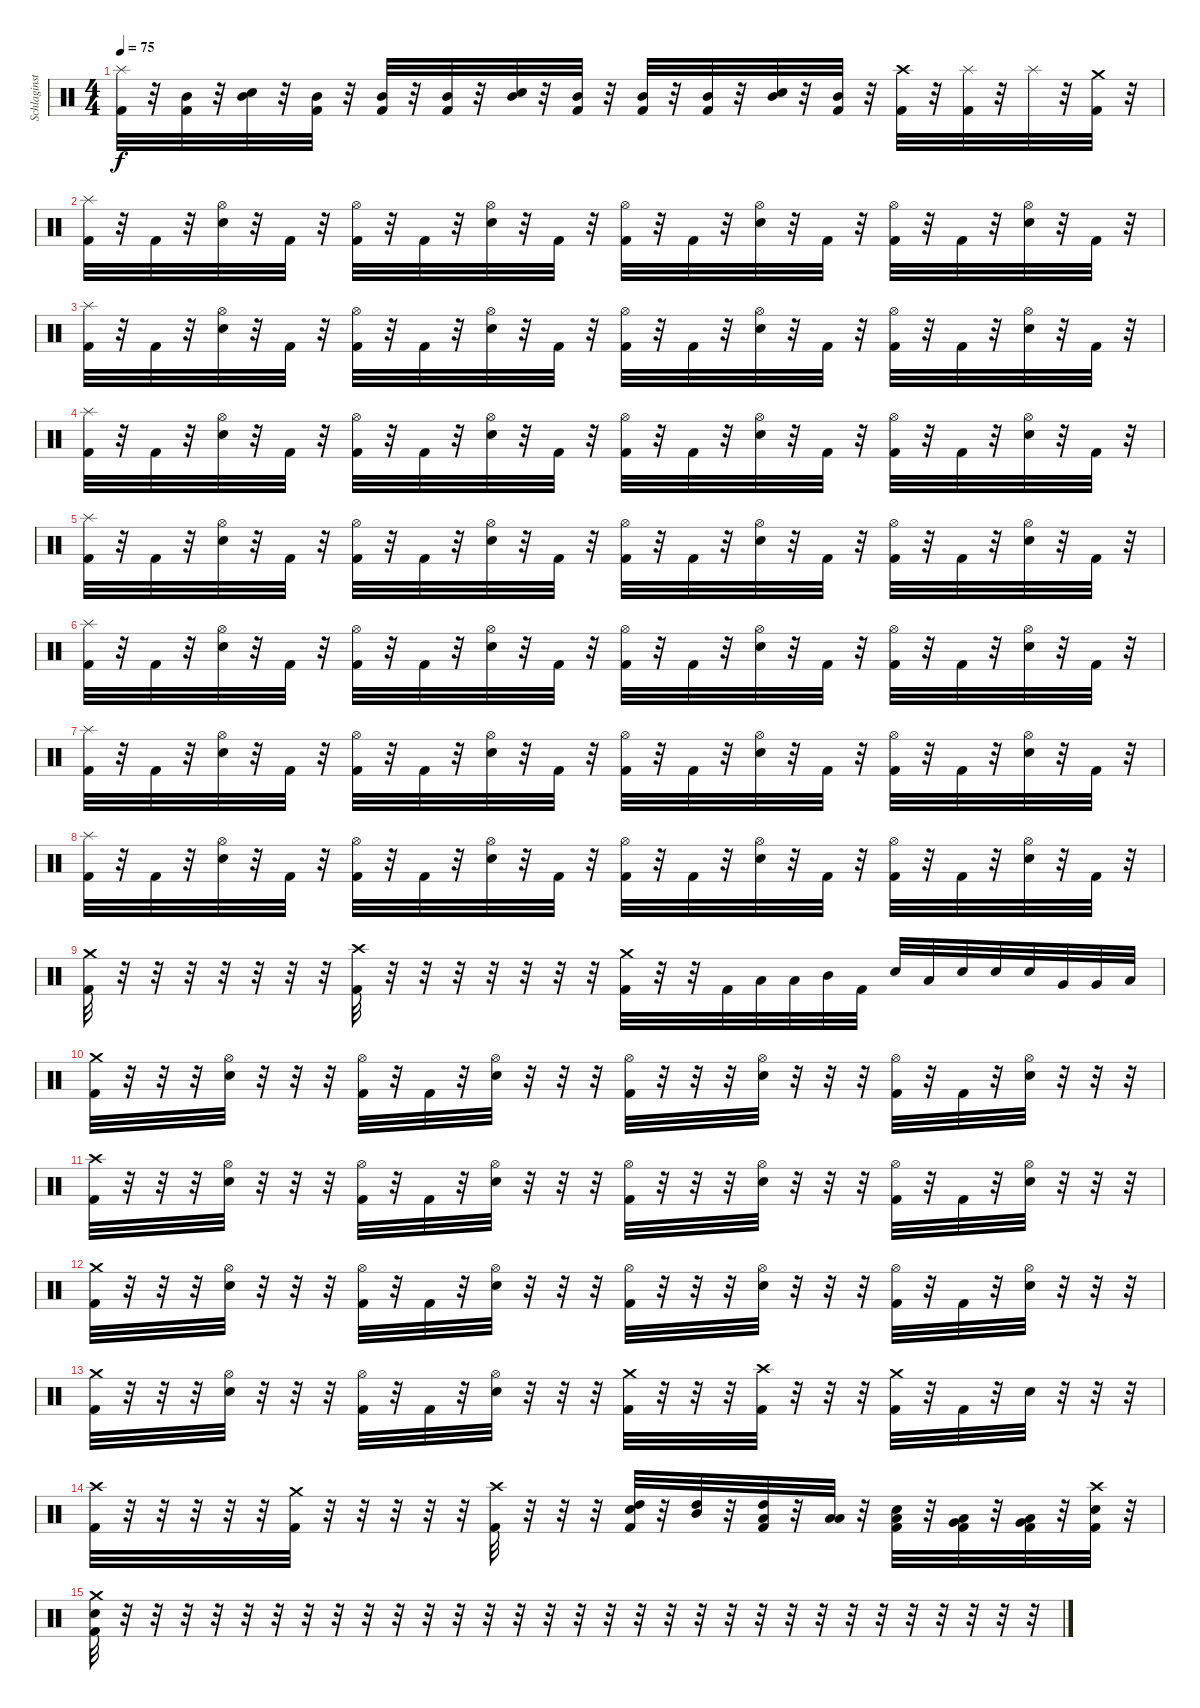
\track ("Schlaginstrumente - Auswahl" "Schlaginst") {instrument percussion}
\staff {score}
\articulation defaults
\ts (4 4)
\tempo 75
\clef neutral
\ks c
("Kick (hit) 2" "Splash (hit)").32{dy f} r.32 ("Kick (hit) 2" "Mid Tom (hit)").32 r.32 ("Electric Snare (hit)" "Mid Tom (hit)").32 r.32 ("Kick (hit) 2" "Mid Tom (hit)").32 r.32 ("Kick (hit) 2" "Mid Tom (hit)").32 r.32 ("Kick (hit) 2" "Mid Tom (hit)").32 r.32 ("Electric Snare (hit)" "Mid Tom (hit)").32 r.32 ("Kick (hit) 2" "Mid Tom (hit)").32 r.32 ("Kick (hit) 2" "Mid Tom (hit)").32 r.32 ("Kick (hit) 2" "Mid Tom (hit)").32 r.32 ("Electric Snare (hit)" "Mid Tom (hit)").32 r.32 ("Kick (hit) 2" "Mid Tom (hit)").32 r.32 ("Kick (hit) 2" "Crash high (hit)").32 r.32 ("Kick (hit) 2" "Splash (hit)").32 r.32 "Splash (hit)".32 r.32 ("Kick (hit) 2" "Crash medium (hit)").32 r.32 |
("Kick (hit) 2" "Splash (hit)").32 r.32 "Kick (hit) 2".32 r.32 ("Electric Snare (hit)" "Hi-Hat (open)").32 r.32 "Kick (hit) 2".32 r.32 ("Kick (hit) 2" "Hi-Hat (open)").32 r.32 "Kick (hit) 2".32 r.32 ("Electric Snare (hit)" "Hi-Hat (open)").32 r.32 "Kick (hit) 2".32 r.32 ("Kick (hit) 2" "Hi-Hat (open)").32 r.32 "Kick (hit) 2".32 r.32 ("Electric Snare (hit)" "Hi-Hat (open)").32 r.32 "Kick (hit) 2".32 r.32 ("Kick (hit) 2" "Hi-Hat (open)").32 r.32 "Kick (hit) 2".32 r.32 ("Electric Snare (hit)" "Hi-Hat (open)").32 r.32 "Kick (hit) 2".32 r.32 |
("Kick (hit) 2" "Splash (hit)").32 r.32 "Kick (hit) 2".32 r.32 ("Electric Snare (hit)" "Hi-Hat (open)").32 r.32 "Kick (hit) 2".32 r.32 ("Kick (hit) 2" "Hi-Hat (open)").32 r.32 "Kick (hit) 2".32 r.32 ("Electric Snare (hit)" "Hi-Hat (open)").32 r.32 "Kick (hit) 2".32 r.32 ("Kick (hit) 2" "Hi-Hat (open)").32 r.32 "Kick (hit) 2".32 r.32 ("Electric Snare (hit)" "Hi-Hat (open)").32 r.32 "Kick (hit) 2".32 r.32 ("Kick (hit) 2" "Hi-Hat (open)").32 r.32 "Kick (hit) 2".32 r.32 ("Electric Snare (hit)" "Hi-Hat (open)").32 r.32 "Kick (hit) 2".32 r.32 |
("Kick (hit) 2" "Splash (hit)").32 r.32 "Kick (hit) 2".32 r.32 ("Electric Snare (hit)" "Hi-Hat (open)").32 r.32 "Kick (hit) 2".32 r.32 ("Kick (hit) 2" "Hi-Hat (open)").32 r.32 "Kick (hit) 2".32 r.32 ("Electric Snare (hit)" "Hi-Hat (open)").32 r.32 "Kick (hit) 2".32 r.32 ("Kick (hit) 2" "Hi-Hat (open)").32 r.32 "Kick (hit) 2".32 r.32 ("Electric Snare (hit)" "Hi-Hat (open)").32 r.32 "Kick (hit) 2".32 r.32 ("Kick (hit) 2" "Hi-Hat (open)").32 r.32 "Kick (hit) 2".32 r.32 ("Electric Snare (hit)" "Hi-Hat (open)").32 r.32 "Kick (hit) 2".32 r.32 |
("Kick (hit) 2" "Splash (hit)").32 r.32 "Kick (hit) 2".32 r.32 ("Electric Snare (hit)" "Hi-Hat (open)").32 r.32 "Kick (hit) 2".32 r.32 ("Kick (hit) 2" "Hi-Hat (open)").32 r.32 "Kick (hit) 2".32 r.32 ("Electric Snare (hit)" "Hi-Hat (open)").32 r.32 "Kick (hit) 2".32 r.32 ("Kick (hit) 2" "Hi-Hat (open)").32 r.32 "Kick (hit) 2".32 r.32 ("Electric Snare (hit)" "Hi-Hat (open)").32 r.32 "Kick (hit) 2".32 r.32 ("Kick (hit) 2" "Hi-Hat (open)").32 r.32 "Kick (hit) 2".32 r.32 ("Electric Snare (hit)" "Hi-Hat (open)").32 r.32 "Kick (hit) 2".32 r.32 |
("Kick (hit) 2" "Splash (hit)").32 r.32 "Kick (hit) 2".32 r.32 ("Electric Snare (hit)" "Hi-Hat (open)").32 r.32 "Kick (hit) 2".32 r.32 ("Kick (hit) 2" "Hi-Hat (open)").32 r.32 "Kick (hit) 2".32 r.32 ("Electric Snare (hit)" "Hi-Hat (open)").32 r.32 "Kick (hit) 2".32 r.32 ("Kick (hit) 2" "Hi-Hat (open)").32 r.32 "Kick (hit) 2".32 r.32 ("Electric Snare (hit)" "Hi-Hat (open)").32 r.32 "Kick (hit) 2".32 r.32 ("Kick (hit) 2" "Hi-Hat (open)").32 r.32 "Kick (hit) 2".32 r.32 ("Electric Snare (hit)" "Hi-Hat (open)").32 r.32 "Kick (hit) 2".32 r.32 |
("Kick (hit) 2" "Splash (hit)").32 r.32 "Kick (hit) 2".32 r.32 ("Electric Snare (hit)" "Hi-Hat (open)").32 r.32 "Kick (hit) 2".32 r.32 ("Kick (hit) 2" "Hi-Hat (open)").32 r.32 "Kick (hit) 2".32 r.32 ("Electric Snare (hit)" "Hi-Hat (open)").32 r.32 "Kick (hit) 2".32 r.32 ("Kick (hit) 2" "Hi-Hat (open)").32 r.32 "Kick (hit) 2".32 r.32 ("Electric Snare (hit)" "Hi-Hat (open)").32 r.32 "Kick (hit) 2".32 r.32 ("Kick (hit) 2" "Hi-Hat (open)").32 r.32 "Kick (hit) 2".32 r.32 ("Electric Snare (hit)" "Hi-Hat (open)").32 r.32 "Kick (hit) 2".32 r.32 |
("Kick (hit) 2" "Splash (hit)").32 r.32 "Kick (hit) 2".32 r.32 ("Electric Snare (hit)" "Hi-Hat (open)").32 r.32 "Kick (hit) 2".32 r.32 ("Kick (hit) 2" "Hi-Hat (open)").32 r.32 "Kick (hit) 2".32 r.32 ("Electric Snare (hit)" "Hi-Hat (open)").32 r.32 "Kick (hit) 2".32 r.32 ("Kick (hit) 2" "Hi-Hat (open)").32 r.32 "Kick (hit) 2".32 r.32 ("Electric Snare (hit)" "Hi-Hat (open)").32 r.32 "Kick (hit) 2".32 r.32 ("Kick (hit) 2" "Hi-Hat (open)").32 r.32 "Kick (hit) 2".32 r.32 ("Electric Snare (hit)" "Hi-Hat (open)").32 r.32 "Kick (hit) 2".32 r.32 |
("Kick (hit) 2" "Crash medium (hit)").32 r.32 r.32 r.32 r.32 r.32 r.32 r.32 ("Kick (hit) 2" "Crash high (hit)").32 r.32 r.32 r.32 r.32 r.32 r.32 r.32 ("Kick (hit) 2" "Crash medium (hit)").32 r.32 r.32 "Kick (hit) 2".32 "Low Tom (hit)".32 "Low Tom (hit)".32 "Mid Tom (hit)".32 "Kick (hit) 2".32 "Electric Snare (hit)".32 "Low Tom (hit)".32 "Electric Snare (hit)".32 "Electric Snare (hit)".32 "Electric Snare (hit)".32 "Very Low Tom (hit)".32 "Very Low Tom (hit)".32 "Low Floor Tom (hit)".32 |
("Kick (hit) 2" "Crash medium (hit)").32 r.32 r.32 r.32 ("Electric Snare (hit)" "Hi-Hat (open)").32 r.32 r.32 r.32 ("Kick (hit) 2" "Hi-Hat (open)").32 r.32 "Kick (hit) 2".32 r.32 ("Electric Snare (hit)" "Hi-Hat (open)").32 r.32 r.32 r.32 ("Kick (hit) 2" "Hi-Hat (open)").32 r.32 r.32 r.32 ("Electric Snare (hit)" "Hi-Hat (open)").32 r.32 r.32 r.32 ("Kick (hit) 2" "Hi-Hat (open)").32 r.32 "Kick (hit) 2".32 r.32 ("Electric Snare (hit)" "Hi-Hat (open)").32 r.32 r.32 r.32 |
("Kick (hit) 2" "Crash high (hit)").32 r.32 r.32 r.32 ("Electric Snare (hit)" "Hi-Hat (open)").32 r.32 r.32 r.32 ("Kick (hit) 2" "Hi-Hat (open)").32 r.32 "Kick (hit) 2".32 r.32 ("Electric Snare (hit)" "Hi-Hat (open)").32 r.32 r.32 r.32 ("Kick (hit) 2" "Hi-Hat (open)").32 r.32 r.32 r.32 ("Electric Snare (hit)" "Hi-Hat (open)").32 r.32 r.32 r.32 ("Kick (hit) 2" "Hi-Hat (open)").32 r.32 "Kick (hit) 2".32 r.32 ("Electric Snare (hit)" "Hi-Hat (open)").32 r.32 r.32 r.32 |
("Kick (hit) 2" "Crash medium (hit)").32 r.32 r.32 r.32 ("Electric Snare (hit)" "Hi-Hat (open)").32 r.32 r.32 r.32 ("Kick (hit) 2" "Hi-Hat (open)").32 r.32 "Kick (hit) 2".32 r.32 ("Electric Snare (hit)" "Hi-Hat (open)").32 r.32 r.32 r.32 ("Kick (hit) 2" "Hi-Hat (open)").32 r.32 r.32 r.32 ("Electric Snare (hit)" "Hi-Hat (open)").32 r.32 r.32 r.32 ("Kick (hit) 2" "Hi-Hat (open)").32 r.32 "Kick (hit) 2".32 r.32 ("Electric Snare (hit)" "Hi-Hat (open)").32 r.32 r.32 r.32 |
("Kick (hit) 2" "Crash medium (hit)").32 r.32 r.32 r.32 ("Electric Snare (hit)" "Hi-Hat (open)").32 r.32 r.32 r.32 ("Kick (hit) 2" "Hi-Hat (open)").32 r.32 "Kick (hit) 2".32 r.32 ("Electric Snare (hit)" "Hi-Hat (open)").32 r.32 r.32 r.32 ("Kick (hit) 2" "Crash medium (hit)").32 r.32 r.32 r.32 ("Kick (hit) 2" "Crash high (hit)").32 r.32 r.32 r.32 ("Kick (hit) 2" "Crash medium (hit)").32 r.32 "Kick (hit) 2".32 r.32 "Electric Snare (hit)".32 r.32 r.32 r.32 |
("Kick (hit) 2" "Crash high (hit)").32 r.32 r.32 r.32 r.32 r.32 ("Kick (hit) 2" "Crash medium (hit)").32 r.32 r.32 r.32 r.32 r.32 ("Kick (hit) 2" "Crash high (hit)").32 r.32 r.32 r.32 ("Kick (hit) 2" "Electric Snare (hit)" "High Tom (hit)").32 r.32 ("Mid Tom (hit)" "High Tom (hit)").32 r.32 ("Kick (hit) 2" "Low Tom (hit)" "High Tom (hit)").32 r.32 ("Low Tom (hit)" "Low Floor Tom (hit)").32 r.32 ("Kick (hit) 2" "Electric Snare (hit)" "Low Tom (hit)").32 r.32 ("Kick (hit) 2" "Very Low Tom (hit)" "Low Tom (hit)").32 r.32 ("Kick (hit) 2" "Very Low Tom (hit)" "Low Floor Tom (hit)").32 r.32 ("Kick (hit) 2" "Electric Snare (hit)" "Crash high (hit)").32 r.32 |
("Kick (hit) 2" "Electric Snare (hit)" "Crash medium (hit)").32 r.32 r.32 r.32 r.32 r.32 r.32 r.32 r.32 r.32 r.32 r.32 r.32 r.32 r.32 r.32 r.32 r.32 r.32 r.32 r.32 r.32 r.32 r.32 r.32 r.32 r.32 r.32 r.32 r.32 r.32 r.32
